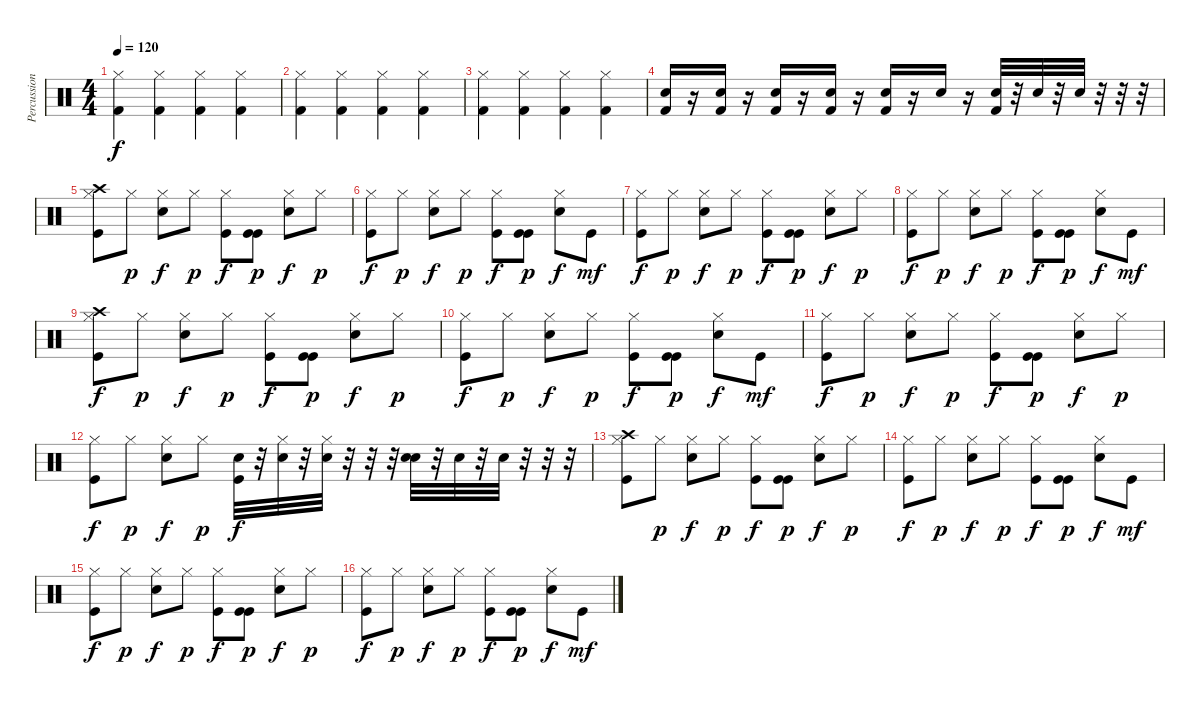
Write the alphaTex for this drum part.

\track ("Percussions" "Percussion") {instrument percussion}
\staff {score}
\articulation defaults
\ts (4 4)
\tempo 120
\clef neutral
\ks c
("Hi-Hat (closed)" "Kick (hit) 2").4{dy f} ("Hi-Hat (closed)" "Kick (hit) 2").4 ("Hi-Hat (closed)" "Kick (hit) 2").4 ("Hi-Hat (closed)" "Kick (hit) 2").4 |
("Hi-Hat (closed)" "Kick (hit) 2").4 ("Hi-Hat (closed)" "Kick (hit) 2").4 ("Hi-Hat (closed)" "Kick (hit) 2").4 ("Hi-Hat (closed)" "Kick (hit) 2").4 |
("Hi-Hat (closed)" "Kick (hit) 2").4 ("Hi-Hat (closed)" "Kick (hit) 2").4 ("Hi-Hat (closed)" "Kick (hit) 2").4 ("Hi-Hat (closed)" "Kick (hit) 2").4 |
("Electric Snare (hit)" "Kick (hit) 2").16 r.16 ("Electric Snare (hit)" "Kick (hit) 2").16 r.16 ("Electric Snare (hit)" "Kick (hit) 2").16 r.16 ("Electric Snare (hit)" "Kick (hit) 2").16 r.16 ("Electric Snare (hit)" "Kick (hit) 2").16 r.16 "Electric Snare (hit)".16 r.16 ("Electric Snare (hit)" "Kick (hit) 2").32 r.32 "Electric Snare (hit)".32 r.32 "Electric Snare (hit)".32 r.32 r.32 r.32 |
("Kick (hit)" "Hi-Hat (closed)" "Crash high (hit)").8 "Hi-Hat (closed)".8{dy p} ("Snare (hit) 2" "Hi-Hat (closed)").8{dy f} "Hi-Hat (closed)".8{dy p} ("Kick (hit)" "Hi-Hat (closed)").8{dy f} ("Kick (hit)" "Kick (hit)").8{dy p} ("Snare (hit) 2" "Hi-Hat (closed)").8{dy f} "Hi-Hat (closed)".8{dy p} |
("Kick (hit)" "Hi-Hat (closed)").8{dy f} "Hi-Hat (closed)".8{dy p} ("Snare (hit) 2" "Hi-Hat (closed)").8{dy f} "Hi-Hat (closed)".8{dy p} ("Kick (hit)" "Hi-Hat (closed)").8{dy f} ("Kick (hit)" "Kick (hit)").8{dy p} ("Snare (hit) 2" "Hi-Hat (closed)").8{dy f} "Kick (hit)".8{dy mf} |
("Kick (hit)" "Hi-Hat (closed)").8{dy f} "Hi-Hat (closed)".8{dy p} ("Snare (hit) 2" "Hi-Hat (closed)").8{dy f} "Hi-Hat (closed)".8{dy p} ("Kick (hit)" "Hi-Hat (closed)").8{dy f} ("Kick (hit)" "Kick (hit)").8{dy p} ("Snare (hit) 2" "Hi-Hat (closed)").8{dy f} "Hi-Hat (closed)".8{dy p} |
("Kick (hit)" "Hi-Hat (closed)").8{dy f} "Hi-Hat (closed)".8{dy p} ("Snare (hit) 2" "Hi-Hat (closed)").8{dy f} "Hi-Hat (closed)".8{dy p} ("Kick (hit)" "Hi-Hat (closed)").8{dy f} ("Kick (hit)" "Kick (hit)").8{dy p} ("Snare (hit) 2" "Hi-Hat (closed)").8{dy f} "Kick (hit)".8{dy mf} |
("Kick (hit)" "Hi-Hat (closed)" "Crash high (hit)").8{dy f} "Hi-Hat (closed)".8{dy p} ("Snare (hit) 2" "Hi-Hat (closed)").8{dy f} "Hi-Hat (closed)".8{dy p} ("Kick (hit)" "Hi-Hat (closed)").8{dy f} ("Kick (hit)" "Kick (hit)").8{dy p} ("Snare (hit) 2" "Hi-Hat (closed)").8{dy f} "Hi-Hat (closed)".8{dy p} |
("Kick (hit)" "Hi-Hat (closed)").8{dy f} "Hi-Hat (closed)".8{dy p} ("Snare (hit) 2" "Hi-Hat (closed)").8{dy f} "Hi-Hat (closed)".8{dy p} ("Kick (hit)" "Hi-Hat (closed)").8{dy f} ("Kick (hit)" "Kick (hit)").8{dy p} ("Snare (hit) 2" "Hi-Hat (closed)").8{dy f} "Kick (hit)".8{dy mf} |
("Kick (hit)" "Hi-Hat (closed)").8{dy f} "Hi-Hat (closed)".8{dy p} ("Snare (hit) 2" "Hi-Hat (closed)").8{dy f} "Hi-Hat (closed)".8{dy p} ("Kick (hit)" "Hi-Hat (closed)").8{dy f} ("Kick (hit)" "Kick (hit)").8{dy p} ("Snare (hit) 2" "Hi-Hat (closed)").8{dy f} "Hi-Hat (closed)".8{dy p} |
("Kick (hit)" "Hi-Hat (closed)").8{dy f} "Hi-Hat (closed)".8{dy p} ("Snare (hit) 2" "Hi-Hat (closed)").8{dy f} "Hi-Hat (closed)".8{dy p} ("Electric Snare (hit)" "Kick (hit)").32{dy f} r.32 ("Electric Snare (hit)" "Hi-Hat (closed)").32 r.32 ("Electric Snare (hit)" "Hi-Hat (closed)").32 r.32 r.32 r.32 ("Electric Snare (hit)" "Snare (hit) 2").32 r.32 "Electric Snare (hit)".32 r.32 "Electric Snare (hit)".32 r.32 r.32 r.32 |
("Kick (hit)" "Hi-Hat (closed)" "Crash high (hit)").8 "Hi-Hat (closed)".8{dy p} ("Snare (hit) 2" "Hi-Hat (closed)").8{dy f} "Hi-Hat (closed)".8{dy p} ("Kick (hit)" "Hi-Hat (closed)").8{dy f} ("Kick (hit)" "Kick (hit)").8{dy p} ("Snare (hit) 2" "Hi-Hat (closed)").8{dy f} "Hi-Hat (closed)".8{dy p} |
("Kick (hit)" "Hi-Hat (closed)").8{dy f} "Hi-Hat (closed)".8{dy p} ("Snare (hit) 2" "Hi-Hat (closed)").8{dy f} "Hi-Hat (closed)".8{dy p} ("Kick (hit)" "Hi-Hat (closed)").8{dy f} ("Kick (hit)" "Kick (hit)").8{dy p} ("Snare (hit) 2" "Hi-Hat (closed)").8{dy f} "Kick (hit)".8{dy mf} |
("Kick (hit)" "Hi-Hat (closed)").8{dy f} "Hi-Hat (closed)".8{dy p} ("Snare (hit) 2" "Hi-Hat (closed)").8{dy f} "Hi-Hat (closed)".8{dy p} ("Kick (hit)" "Hi-Hat (closed)").8{dy f} ("Kick (hit)" "Kick (hit)").8{dy p} ("Snare (hit) 2" "Hi-Hat (closed)").8{dy f} "Hi-Hat (closed)".8{dy p} |
("Kick (hit)" "Hi-Hat (closed)").8{dy f} "Hi-Hat (closed)".8{dy p} ("Snare (hit) 2" "Hi-Hat (closed)").8{dy f} "Hi-Hat (closed)".8{dy p} ("Kick (hit)" "Hi-Hat (closed)").8{dy f} ("Kick (hit)" "Kick (hit)").8{dy p} ("Snare (hit) 2" "Hi-Hat (closed)").8{dy f} "Kick (hit)".8{dy mf}
